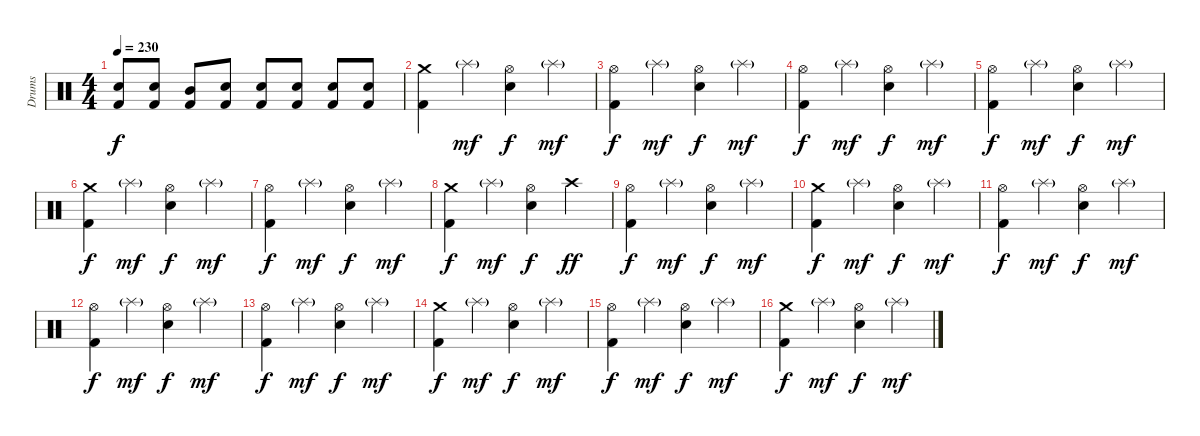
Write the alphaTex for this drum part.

\track ("Drums" "Drums") {instrument percussion}
\staff {score}
\articulation defaults
\ts (4 4)
\tempo 230
\clef neutral
\ks c
("Electric Snare (hit)" "Kick (hit) 2").8{dy f} ("Electric Snare (hit)" "Kick (hit) 2").8 ("Mid Tom (hit)" "Kick (hit) 2").8 ("Electric Snare (hit)" "Kick (hit) 2").8 ("Electric Snare (hit)" "Kick (hit) 2").8 ("Electric Snare (hit)" "Kick (hit) 2").8 ("Electric Snare (hit)" "Kick (hit) 2").8 ("Electric Snare (hit)" "Kick (hit) 2").8 |
("Crash medium (hit)" "Kick (hit) 2").4 "Splash (hit)"{g}.4{dy mf} ("Hi-Hat (open)" "Electric Snare (hit)").4{dy f} "Splash (hit)"{g}.4{dy mf} |
("Hi-Hat (open)" "Kick (hit) 2").4{dy f} "Splash (hit)"{g}.4{dy mf} ("Hi-Hat (open)" "Electric Snare (hit)").4{dy f} "Splash (hit)"{g}.4{dy mf} |
("Hi-Hat (open)" "Kick (hit) 2").4{dy f} "Splash (hit)"{g}.4{dy mf} ("Hi-Hat (open)" "Electric Snare (hit)").4{dy f} "Splash (hit)"{g}.4{dy mf} |
("Hi-Hat (open)" "Kick (hit) 2").4{dy f} "Splash (hit)"{g}.4{dy mf} ("Hi-Hat (open)" "Electric Snare (hit)").4{dy f} "Splash (hit)"{g}.4{dy mf} |
("Crash medium (hit)" "Kick (hit) 2").4{dy f} "Splash (hit)"{g}.4{dy mf} ("Hi-Hat (open)" "Electric Snare (hit)").4{dy f} "Splash (hit)"{g}.4{dy mf} |
("Hi-Hat (open)" "Kick (hit) 2").4{dy f} "Splash (hit)"{g}.4{dy mf} ("Hi-Hat (open)" "Electric Snare (hit)").4{dy f} "Splash (hit)"{g}.4{dy mf} |
("Crash medium (hit)" "Kick (hit) 2").4{dy f} "Splash (hit)"{g}.4{dy mf} ("Hi-Hat (open)" "Electric Snare (hit)").4{dy f} "Crash high (hit)".4{dy ff} |
("Hi-Hat (open)" "Kick (hit) 2").4{dy f} "Splash (hit)"{g}.4{dy mf} ("Hi-Hat (open)" "Electric Snare (hit)").4{dy f} "Splash (hit)"{g}.4{dy mf} |
("Crash medium (hit)" "Kick (hit) 2").4{dy f} "Splash (hit)"{g}.4{dy mf} ("Hi-Hat (open)" "Electric Snare (hit)").4{dy f} "Splash (hit)"{g}.4{dy mf} |
("Hi-Hat (open)" "Kick (hit) 2").4{dy f} "Splash (hit)"{g}.4{dy mf} ("Hi-Hat (open)" "Electric Snare (hit)").4{dy f} "Splash (hit)"{g}.4{dy mf} |
("Hi-Hat (open)" "Kick (hit) 2").4{dy f} "Splash (hit)"{g}.4{dy mf} ("Hi-Hat (open)" "Electric Snare (hit)").4{dy f} "Splash (hit)"{g}.4{dy mf} |
("Hi-Hat (open)" "Kick (hit) 2").4{dy f} "Splash (hit)"{g}.4{dy mf} ("Hi-Hat (open)" "Electric Snare (hit)").4{dy f} "Splash (hit)"{g}.4{dy mf} |
("Crash medium (hit)" "Kick (hit) 2").4{dy f} "Splash (hit)"{g}.4{dy mf} ("Hi-Hat (open)" "Electric Snare (hit)").4{dy f} "Splash (hit)"{g}.4{dy mf} |
("Hi-Hat (open)" "Kick (hit) 2").4{dy f} "Splash (hit)"{g}.4{dy mf} ("Hi-Hat (open)" "Electric Snare (hit)").4{dy f} "Splash (hit)"{g}.4{dy mf} |
("Crash medium (hit)" "Kick (hit) 2").4{dy f} "Splash (hit)"{g}.4{dy mf} ("Hi-Hat (open)" "Electric Snare (hit)").4{dy f} "Splash (hit)"{g}.4{dy mf}
